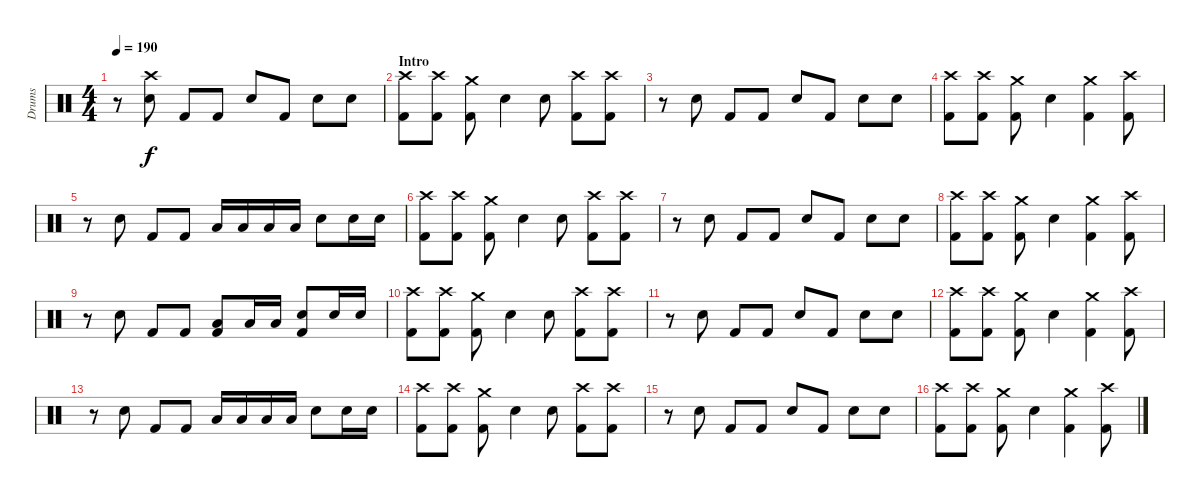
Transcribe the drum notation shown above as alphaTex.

\track ("Drums" "Drums") {instrument percussion}
\staff {score}
\articulation defaults
\ts (4 4)
\tempo 190
\clef neutral
\ks c
r.8{dy f} ("Crash high (hit)" "Electric Snare (hit)").8 "Kick (hit) 2".8 "Kick (hit) 2".8 "Electric Snare (hit)".8 "Kick (hit) 2".8 "Electric Snare (hit)".8 "Electric Snare (hit)".8 |
\section ("" "Intro")
("Crash high (hit)" "Kick (hit) 2").8 ("Crash high (hit)" "Kick (hit) 2").8 ("Crash medium (hit)" "Kick (hit) 2").8 "Electric Snare (hit)".4 "Electric Snare (hit)".8 ("Crash high (hit)" "Kick (hit) 2").8 ("Crash high (hit)" "Kick (hit) 2").8 |
r.8 "Electric Snare (hit)".8 "Kick (hit) 2".8 "Kick (hit) 2".8 "Electric Snare (hit)".8 "Kick (hit) 2".8 "Electric Snare (hit)".8 "Electric Snare (hit)".8 |
("Crash high (hit)" "Kick (hit) 2").8 ("Crash high (hit)" "Kick (hit) 2").8 ("Crash medium (hit)" "Kick (hit) 2").8 "Electric Snare (hit)".4 ("Crash medium (hit)" "Kick (hit) 2").4 ("Crash high (hit)" "Kick (hit) 2").8 |
r.8 "Electric Snare (hit)".8 "Kick (hit) 2".8 "Kick (hit) 2".8 "Low Floor Tom (hit)".16 "Low Floor Tom (hit)".16 "Low Floor Tom (hit)".16 "Low Floor Tom (hit)".16 "Electric Snare (hit)".8 "Electric Snare (hit)".16 "Electric Snare (hit)".16 |
("Crash high (hit)" "Kick (hit) 2").8 ("Crash high (hit)" "Kick (hit) 2").8 ("Crash medium (hit)" "Kick (hit) 2").8 "Electric Snare (hit)".4 "Electric Snare (hit)".8 ("Crash high (hit)" "Kick (hit) 2").8 ("Crash high (hit)" "Kick (hit) 2").8 |
r.8 "Electric Snare (hit)".8 "Kick (hit) 2".8 "Kick (hit) 2".8 "Electric Snare (hit)".8 "Kick (hit) 2".8 "Electric Snare (hit)".8 "Electric Snare (hit)".8 |
("Crash high (hit)" "Kick (hit) 2").8 ("Crash high (hit)" "Kick (hit) 2").8 ("Crash medium (hit)" "Kick (hit) 2").8 "Electric Snare (hit)".4 ("Crash medium (hit)" "Kick (hit) 2").4 ("Crash high (hit)" "Kick (hit) 2").8 |
r.8 "Electric Snare (hit)".8 "Kick (hit) 2".8 "Kick (hit) 2".8 ("Low Floor Tom (hit)" "Kick (hit) 2").8 "Low Floor Tom (hit)".16 "Low Floor Tom (hit)".16 ("Electric Snare (hit)" "Kick (hit) 2").8 "Electric Snare (hit)".16 "Electric Snare (hit)".16 |
("Crash high (hit)" "Kick (hit) 2").8 ("Crash high (hit)" "Kick (hit) 2").8 ("Crash medium (hit)" "Kick (hit) 2").8 "Electric Snare (hit)".4 "Electric Snare (hit)".8 ("Crash high (hit)" "Kick (hit) 2").8 ("Crash high (hit)" "Kick (hit) 2").8 |
r.8 "Electric Snare (hit)".8 "Kick (hit) 2".8 "Kick (hit) 2".8 "Electric Snare (hit)".8 "Kick (hit) 2".8 "Electric Snare (hit)".8 "Electric Snare (hit)".8 |
("Crash high (hit)" "Kick (hit) 2").8 ("Crash high (hit)" "Kick (hit) 2").8 ("Crash medium (hit)" "Kick (hit) 2").8 "Electric Snare (hit)".4 ("Crash medium (hit)" "Kick (hit) 2").4 ("Crash high (hit)" "Kick (hit) 2").8 |
r.8 "Electric Snare (hit)".8 "Kick (hit) 2".8 "Kick (hit) 2".8 "Low Floor Tom (hit)".16 "Low Floor Tom (hit)".16 "Low Floor Tom (hit)".16 "Low Floor Tom (hit)".16 "Electric Snare (hit)".8 "Electric Snare (hit)".16 "Electric Snare (hit)".16 |
("Crash high (hit)" "Kick (hit) 2").8 ("Crash high (hit)" "Kick (hit) 2").8 ("Crash medium (hit)" "Kick (hit) 2").8 "Electric Snare (hit)".4 "Electric Snare (hit)".8 ("Crash high (hit)" "Kick (hit) 2").8 ("Crash high (hit)" "Kick (hit) 2").8 |
r.8 "Electric Snare (hit)".8 "Kick (hit) 2".8 "Kick (hit) 2".8 "Electric Snare (hit)".8 "Kick (hit) 2".8 "Electric Snare (hit)".8 "Electric Snare (hit)".8 |
("Crash high (hit)" "Kick (hit) 2").8 ("Crash high (hit)" "Kick (hit) 2").8 ("Crash medium (hit)" "Kick (hit) 2").8 "Electric Snare (hit)".4 ("Crash medium (hit)" "Kick (hit) 2").4 ("Crash high (hit)" "Kick (hit) 2").8
